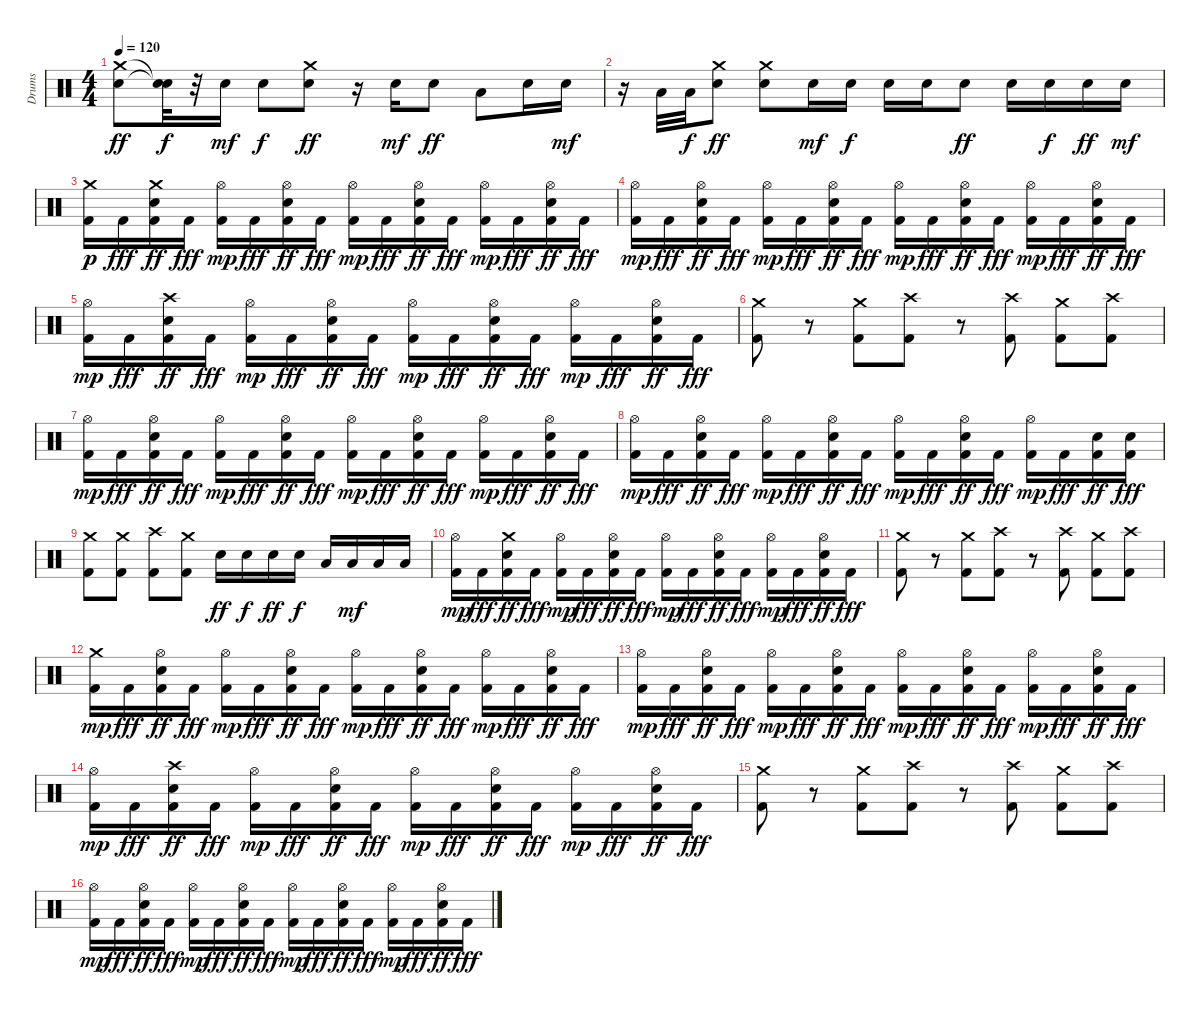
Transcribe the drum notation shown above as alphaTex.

\track ("Drums" "Drums") {instrument percussion}
\staff {score}
\articulation defaults
\ts (4 4)
\tempo 120
\clef neutral
\ks c
("Crash medium (hit)" "Snare (hit) 2").8{dy ff} ("Snare (hit)"{t} "Snare (hit)"{t}).32{dy f} r.32 "Snare (hit) 2".16{dy mf} "Snare (hit) 2".8{dy f} ("Crash medium (hit)" "Snare (hit) 2").8{dy ff} r.16 "Snare (hit) 2".16{dy mf} "Snare (hit) 2".8{dy ff} "Low Tom (hit)".8 "Snare (hit) 2".16 "Snare (hit) 2".16{dy mf} |
r.16 "Low Tom (hit)".32 "Low Tom (hit)".32{dy f} ("Crash medium (hit)" "Snare (hit) 2").8{dy ff} ("Crash medium (hit)" "Snare (hit) 2").8 "Snare (hit) 2".16{dy mf} "Snare (hit) 2".16{dy f} "Snare (hit) 2".16 "Snare (hit) 2".16 "Snare (hit) 2".8{dy ff} "Snare (hit) 2".16 "Snare (hit) 2".16{dy f} "Snare (hit) 2".16{dy ff} "Snare (hit) 2".16{dy mf} |
("Kick (hit) 2" "Crash medium (hit)").16{dy p} "Kick (hit) 2".16{dy fff} ("Kick (hit) 2" "Crash medium (hit)" "Snare (hit) 2").16{dy ff} "Kick (hit) 2".16{dy fff} ("Kick (hit) 2" "Hi-Hat (open)").16{dy mp} "Kick (hit) 2".16{dy fff} ("Kick (hit) 2" "Hi-Hat (open)" "Snare (hit) 2").16{dy ff} "Kick (hit) 2".16{dy fff} ("Kick (hit) 2" "Hi-Hat (open)").16{dy mp} "Kick (hit) 2".16{dy fff} ("Kick (hit) 2" "Hi-Hat (open)" "Snare (hit) 2").16{dy ff} "Kick (hit) 2".16{dy fff} ("Kick (hit) 2" "Hi-Hat (open)").16{dy mp} "Kick (hit) 2".16{dy fff} ("Kick (hit) 2" "Hi-Hat (open)" "Snare (hit) 2").16{dy ff} "Kick (hit) 2".16{dy fff} |
("Kick (hit) 2" "Hi-Hat (open)").16{dy mp} "Kick (hit) 2".16{dy fff} ("Kick (hit) 2" "Hi-Hat (open)" "Snare (hit) 2").16{dy ff} "Kick (hit) 2".16{dy fff} ("Kick (hit) 2" "Hi-Hat (open)").16{dy mp} "Kick (hit) 2".16{dy fff} ("Kick (hit) 2" "Hi-Hat (open)" "Snare (hit) 2").16{dy ff} "Kick (hit) 2".16{dy fff} ("Kick (hit) 2" "Hi-Hat (open)").16{dy mp} "Kick (hit) 2".16{dy fff} ("Kick (hit) 2" "Hi-Hat (open)" "Snare (hit) 2").16{dy ff} "Kick (hit) 2".16{dy fff} ("Kick (hit) 2" "Hi-Hat (open)").16{dy mp} "Kick (hit) 2".16{dy fff} ("Kick (hit) 2" "Hi-Hat (open)" "Snare (hit) 2").16{dy ff} "Kick (hit) 2".16{dy fff} |
("Kick (hit) 2" "Hi-Hat (open)").16{dy mp} "Kick (hit) 2".16{dy fff} ("Kick (hit) 2" "Crash high (hit)" "Snare (hit) 2").16{dy ff} "Kick (hit) 2".16{dy fff} ("Kick (hit) 2" "Hi-Hat (open)").16{dy mp} "Kick (hit) 2".16{dy fff} ("Kick (hit) 2" "Hi-Hat (open)" "Snare (hit) 2").16{dy ff} "Kick (hit) 2".16{dy fff} ("Kick (hit) 2" "Hi-Hat (open)").16{dy mp} "Kick (hit) 2".16{dy fff} ("Kick (hit) 2" "Hi-Hat (open)" "Snare (hit) 2").16{dy ff} "Kick (hit) 2".16{dy fff} ("Kick (hit) 2" "Hi-Hat (open)").16{dy mp} "Kick (hit) 2".16{dy fff} ("Kick (hit) 2" "Hi-Hat (open)" "Snare (hit) 2").16{dy ff} "Kick (hit) 2".16{dy fff} |
("Crash medium (hit)" "Kick (hit) 2").8 r.8 ("Crash medium (hit)" "Kick (hit) 2").8 ("Crash high (hit)" "Kick (hit) 2").8 r.8 ("Crash high (hit)" "Kick (hit) 2").8 ("Crash medium (hit)" "Kick (hit) 2").8 ("Crash high (hit)" "Kick (hit) 2").8 |
("Kick (hit) 2" "Hi-Hat (open)").16{dy mp} "Kick (hit) 2".16{dy fff} ("Kick (hit) 2" "Hi-Hat (open)" "Snare (hit) 2").16{dy ff} "Kick (hit) 2".16{dy fff} ("Kick (hit) 2" "Hi-Hat (open)").16{dy mp} "Kick (hit) 2".16{dy fff} ("Kick (hit) 2" "Hi-Hat (open)" "Snare (hit) 2").16{dy ff} "Kick (hit) 2".16{dy fff} ("Kick (hit) 2" "Hi-Hat (open)").16{dy mp} "Kick (hit) 2".16{dy fff} ("Kick (hit) 2" "Hi-Hat (open)" "Snare (hit) 2").16{dy ff} "Kick (hit) 2".16{dy fff} ("Kick (hit) 2" "Hi-Hat (open)").16{dy mp} "Kick (hit) 2".16{dy fff} ("Kick (hit) 2" "Hi-Hat (open)" "Snare (hit) 2").16{dy ff} "Kick (hit) 2".16{dy fff} |
("Kick (hit) 2" "Hi-Hat (open)").16{dy mp} "Kick (hit) 2".16{dy fff} ("Kick (hit) 2" "Hi-Hat (open)" "Snare (hit) 2").16{dy ff} "Kick (hit) 2".16{dy fff} ("Kick (hit) 2" "Hi-Hat (open)").16{dy mp} "Kick (hit) 2".16{dy fff} ("Kick (hit) 2" "Hi-Hat (open)" "Snare (hit) 2").16{dy ff} "Kick (hit) 2".16{dy fff} ("Kick (hit) 2" "Hi-Hat (open)").16{dy mp} "Kick (hit) 2".16{dy fff} ("Kick (hit) 2" "Hi-Hat (open)" "Snare (hit) 2").16{dy ff} "Kick (hit) 2".16{dy fff} ("Kick (hit) 2" "Hi-Hat (open)").16{dy mp} "Kick (hit) 2".16{dy fff} ("Kick (hit) 2" "Snare (hit) 2").16{dy ff} ("Kick (hit) 2" "Snare (hit) 2").16{dy fff} |
("Crash medium (hit)" "Kick (hit) 2").8 ("Crash medium (hit)" "Kick (hit) 2").8 ("Crash high (hit)" "Kick (hit) 2").8 ("Crash medium (hit)" "Kick (hit) 2").8 "Snare (hit) 2".16{dy ff} "Snare (hit) 2".16{dy f} "Snare (hit) 2".16{dy ff} "Snare (hit) 2".16{dy f} "Low Tom (hit)".16 "Low Tom (hit)".16{dy mf} "Low Tom (hit)".16 "Low Tom (hit)".16 |
("Kick (hit) 2" "Hi-Hat (open)").16{dy mp} "Kick (hit) 2".16{dy fff} ("Kick (hit) 2" "Crash medium (hit)" "Snare (hit) 2").16{dy ff} "Kick (hit) 2".16{dy fff} ("Kick (hit) 2" "Hi-Hat (open)").16{dy mp} "Kick (hit) 2".16{dy fff} ("Kick (hit) 2" "Hi-Hat (open)" "Snare (hit) 2").16{dy ff} "Kick (hit) 2".16{dy fff} ("Kick (hit) 2" "Hi-Hat (open)").16{dy mp} "Kick (hit) 2".16{dy fff} ("Kick (hit) 2" "Hi-Hat (open)" "Snare (hit) 2").16{dy ff} "Kick (hit) 2".16{dy fff} ("Kick (hit) 2" "Hi-Hat (open)").16{dy mp} "Kick (hit) 2".16{dy fff} ("Kick (hit) 2" "Hi-Hat (open)" "Snare (hit) 2").16{dy ff} "Kick (hit) 2".16{dy fff} |
("Crash medium (hit)" "Kick (hit) 2").8 r.8 ("Crash medium (hit)" "Kick (hit) 2").8 ("Crash high (hit)" "Kick (hit) 2").8 r.8 ("Crash high (hit)" "Kick (hit) 2").8 ("Crash medium (hit)" "Kick (hit) 2").8 ("Crash high (hit)" "Kick (hit) 2").8 |
("Kick (hit) 2" "Crash medium (hit)").16{dy mp} "Kick (hit) 2".16{dy fff} ("Kick (hit) 2" "Hi-Hat (open)" "Snare (hit) 2").16{dy ff} "Kick (hit) 2".16{dy fff} ("Kick (hit) 2" "Hi-Hat (open)").16{dy mp} "Kick (hit) 2".16{dy fff} ("Kick (hit) 2" "Hi-Hat (open)" "Snare (hit) 2").16{dy ff} "Kick (hit) 2".16{dy fff} ("Kick (hit) 2" "Hi-Hat (open)").16{dy mp} "Kick (hit) 2".16{dy fff} ("Kick (hit) 2" "Hi-Hat (open)" "Snare (hit) 2").16{dy ff} "Kick (hit) 2".16{dy fff} ("Kick (hit) 2" "Hi-Hat (open)").16{dy mp} "Kick (hit) 2".16{dy fff} ("Kick (hit) 2" "Hi-Hat (open)" "Snare (hit) 2").16{dy ff} "Kick (hit) 2".16{dy fff} |
("Kick (hit) 2" "Hi-Hat (open)").16{dy mp} "Kick (hit) 2".16{dy fff} ("Kick (hit) 2" "Hi-Hat (open)" "Snare (hit) 2").16{dy ff} "Kick (hit) 2".16{dy fff} ("Kick (hit) 2" "Hi-Hat (open)").16{dy mp} "Kick (hit) 2".16{dy fff} ("Kick (hit) 2" "Hi-Hat (open)" "Snare (hit) 2").16{dy ff} "Kick (hit) 2".16{dy fff} ("Kick (hit) 2" "Hi-Hat (open)").16{dy mp} "Kick (hit) 2".16{dy fff} ("Kick (hit) 2" "Hi-Hat (open)" "Snare (hit) 2").16{dy ff} "Kick (hit) 2".16{dy fff} ("Kick (hit) 2" "Hi-Hat (open)").16{dy mp} "Kick (hit) 2".16{dy fff} ("Kick (hit) 2" "Hi-Hat (open)" "Snare (hit) 2").16{dy ff} "Kick (hit) 2".16{dy fff} |
("Kick (hit) 2" "Hi-Hat (open)").16{dy mp} "Kick (hit) 2".16{dy fff} ("Kick (hit) 2" "Crash high (hit)" "Snare (hit) 2").16{dy ff} "Kick (hit) 2".16{dy fff} ("Kick (hit) 2" "Hi-Hat (open)").16{dy mp} "Kick (hit) 2".16{dy fff} ("Kick (hit) 2" "Hi-Hat (open)" "Snare (hit) 2").16{dy ff} "Kick (hit) 2".16{dy fff} ("Kick (hit) 2" "Hi-Hat (open)").16{dy mp} "Kick (hit) 2".16{dy fff} ("Kick (hit) 2" "Hi-Hat (open)" "Snare (hit) 2").16{dy ff} "Kick (hit) 2".16{dy fff} ("Kick (hit) 2" "Hi-Hat (open)").16{dy mp} "Kick (hit) 2".16{dy fff} ("Kick (hit) 2" "Hi-Hat (open)" "Snare (hit) 2").16{dy ff} "Kick (hit) 2".16{dy fff} |
("Crash medium (hit)" "Kick (hit) 2").8 r.8 ("Crash medium (hit)" "Kick (hit) 2").8 ("Crash high (hit)" "Kick (hit) 2").8 r.8 ("Crash high (hit)" "Kick (hit) 2").8 ("Crash medium (hit)" "Kick (hit) 2").8 ("Crash high (hit)" "Kick (hit) 2").8 |
("Kick (hit) 2" "Hi-Hat (open)").16{dy mp} "Kick (hit) 2".16{dy fff} ("Kick (hit) 2" "Hi-Hat (open)" "Snare (hit) 2").16{dy ff} "Kick (hit) 2".16{dy fff} ("Kick (hit) 2" "Hi-Hat (open)").16{dy mp} "Kick (hit) 2".16{dy fff} ("Kick (hit) 2" "Hi-Hat (open)" "Snare (hit) 2").16{dy ff} "Kick (hit) 2".16{dy fff} ("Kick (hit) 2" "Hi-Hat (open)").16{dy mp} "Kick (hit) 2".16{dy fff} ("Kick (hit) 2" "Hi-Hat (open)" "Snare (hit) 2").16{dy ff} "Kick (hit) 2".16{dy fff} ("Kick (hit) 2" "Hi-Hat (open)").16{dy mp} "Kick (hit) 2".16{dy fff} ("Kick (hit) 2" "Hi-Hat (open)" "Snare (hit) 2").16{dy ff} "Kick (hit) 2".16{dy fff}
